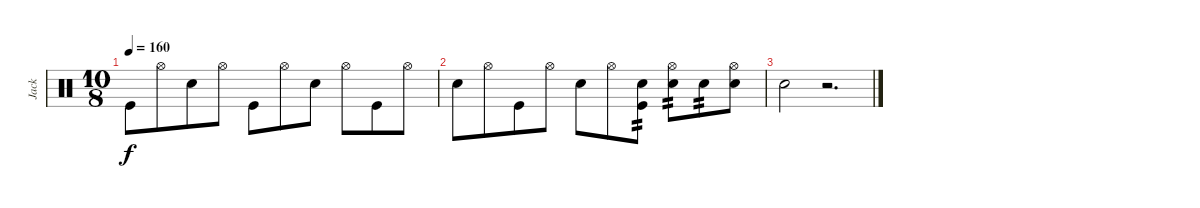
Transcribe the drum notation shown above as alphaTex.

\track ("Jack" "Jack") {instrument percussion}
\staff {score}
\articulation defaults
\ts (10 8)
\tempo 160
\clef neutral
\ks c "Kick (hit)".8{dy f} "Hi-Hat (open)".8 "Snare (hit) 2".8 "Hi-Hat (open)".8 "Kick (hit)".8 "Hi-Hat (open)".8 "Snare (hit) 2".8 "Hi-Hat (open)".8 "Kick (hit)".8 "Hi-Hat (open)".8
|
"Snare (hit) 2".8 "Hi-Hat (open)".8 "Kick (hit)".8 "Hi-Hat (open)".8 "Snare (hit) 2".8 "Hi-Hat (open)".8 ("Snare (hit) 2" "Kick (hit)").8{tp 2} ("Hi-Hat (open)" "Electric Snare (hit)").8{tp 2} "Snare (hit) 2".8{tp 2} ("Hi-Hat (open)" "Snare (hit) 2").8 |
"Snare (hit) 2".2 r.2{d}
